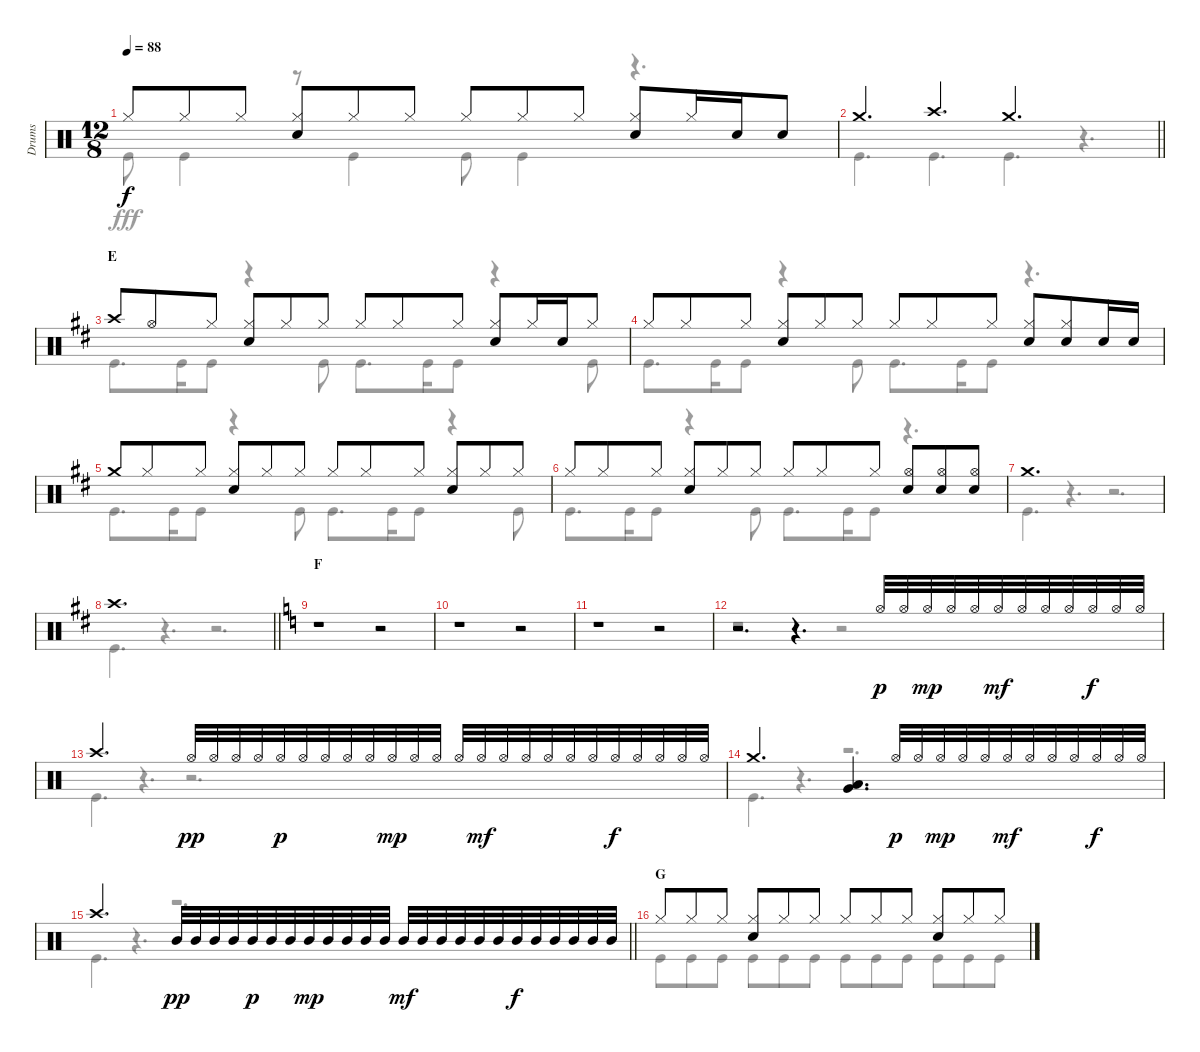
\track ("Drums" "Drums") {instrument percussion}
\staff {score}
\articulation defaults
\voice
\ts (12 8)
\tempo 88
\clef neutral
\ks c "Hi-Hat (closed)".8{dy f} "Hi-Hat (closed)".8 "Hi-Hat (closed)".8
("Hi-Hat (closed)" "Snare (hit) 2").8 "Hi-Hat (closed)".8 "Hi-Hat (closed)".8 "Hi-Hat (closed)".8 "Hi-Hat (closed)".8 "Hi-Hat (closed)".8 ("Hi-Hat (closed)" "Snare (hit) 2").8 "Hi-Hat (closed)".16 "Snare (hit) 2".16 "Snare (hit) 2".8 |
\barLineRight lightlight "Crash medium (hit)".4{d} "Crash high (hit)".4{d} "Crash medium (hit)".2{d}
|
\section ("" "E")
\ks d "Crash high (hit)".8 "Hi-Hat (open)".8 "Hi-Hat (closed)".8
("Hi-Hat (closed)" "Snare (hit) 2").8 "Hi-Hat (closed)".8 "Hi-Hat (closed)".8 "Hi-Hat (closed)".8 "Hi-Hat (closed)".8 "Hi-Hat (closed)".8 ("Hi-Hat (closed)" "Snare (hit) 2").8 "Hi-Hat (closed)".16 "Snare (hit) 2".16 "Hi-Hat (closed)".8 |
"Hi-Hat (closed)".8 "Hi-Hat (closed)".8 "Hi-Hat (closed)".8 ("Hi-Hat (closed)" "Snare (hit) 2").8 "Hi-Hat (closed)".8 "Hi-Hat (closed)".8 "Hi-Hat (closed)".8 "Hi-Hat (closed)".8 "Hi-Hat (closed)".8 ("Hi-Hat (closed)" "Snare (hit) 2").8 ("Hi-Hat (closed)" "Snare (hit) 2").8 "Snare (hit) 2".16 "Snare (hit) 2".16 |
"Crash medium (hit)".8 "Hi-Hat (closed)".8 "Hi-Hat (closed)".8 ("Hi-Hat (closed)" "Snare (hit) 2").8 "Hi-Hat (closed)".8 "Hi-Hat (closed)".8 "Hi-Hat (closed)".8 "Hi-Hat (closed)".8 "Hi-Hat (closed)".8 ("Hi-Hat (closed)" "Snare (hit) 2").8 "Hi-Hat (closed)".8 "Hi-Hat (closed)".8 |
"Hi-Hat (closed)".8 "Hi-Hat (closed)".8 "Hi-Hat (closed)".8 ("Hi-Hat (closed)" "Snare (hit) 2").8 "Hi-Hat (closed)".8 "Hi-Hat (closed)".8 "Hi-Hat (closed)".8 "Hi-Hat (closed)".8 "Hi-Hat (closed)".8 ("Hi-Hat (open)" "Snare (hit) 2").8 ("Hi-Hat (open)" "Snare (hit) 2").8 ("Hi-Hat (open)" "Snare (hit) 2").8 |
"Crash medium (hit)".1{d} |
\barLineRight lightlight "Crash high (hit)".1{d}
|
\section ("" "F")
\ks c
r.1 r.2 |
r.1 r.2 |
r.1 r.2 |
r.2{d} r.4{d} "Hi-Hat (open)".32{dy p} "Hi-Hat (open)".32 "Hi-Hat (open)".32{dy mp} "Hi-Hat (open)".32 "Hi-Hat (open)".32 "Hi-Hat (open)".32{dy mf} "Hi-Hat (open)".32 "Hi-Hat (open)".32 "Hi-Hat (open)".32 "Hi-Hat (open)".32{dy f} "Hi-Hat (open)".32 "Hi-Hat (open)".32 |
"Crash high (hit)".2{d} "Hi-Hat (open)".32{dy pp} "Hi-Hat (open)".32 "Hi-Hat (open)".32 "Hi-Hat (open)".32 "Hi-Hat (open)".32{dy p} "Hi-Hat (open)".32 "Hi-Hat (open)".32 "Hi-Hat (open)".32 "Hi-Hat (open)".32 "Hi-Hat (open)".32{dy mp} "Hi-Hat (open)".32 "Hi-Hat (open)".32 "Hi-Hat (open)".32 "Hi-Hat (open)".32{dy mf} "Hi-Hat (open)".32 "Hi-Hat (open)".32 "Hi-Hat (open)".32 "Hi-Hat (open)".32 "Hi-Hat (open)".32 "Hi-Hat (open)".32{dy f} "Hi-Hat (open)".32 "Hi-Hat (open)".32 "Hi-Hat (open)".32 "Hi-Hat (open)".32 |
"Crash medium (hit)".2{d} ("Low Tom (hit)" "Very Low Tom (hit)").4{d} "Hi-Hat (open)".32{dy p} "Hi-Hat (open)".32 "Hi-Hat (open)".32{dy mp} "Hi-Hat (open)".32 "Hi-Hat (open)".32 "Hi-Hat (open)".32{dy mf} "Hi-Hat (open)".32 "Hi-Hat (open)".32 "Hi-Hat (open)".32 "Hi-Hat (open)".32{dy f} "Hi-Hat (open)".32 "Hi-Hat (open)".32 |
\barLineRight lightlight "Crash high (hit)".2{d} "Mid Tom (hit)".32{dy pp} "Mid Tom (hit)".32 "Mid Tom (hit)".32 "Mid Tom (hit)".32 "Mid Tom (hit)".32{dy p} "Mid Tom (hit)".32 "Mid Tom (hit)".32 "Mid Tom (hit)".32{dy mp} "Mid Tom (hit)".32 "Mid Tom (hit)".32 "Mid Tom (hit)".32 "Mid Tom (hit)".32 "Mid Tom (hit)".32{dy mf} "Mid Tom (hit)".32 "Mid Tom (hit)".32 "Mid Tom (hit)".32 "Mid Tom (hit)".32 "Mid Tom (hit)".32 "Mid Tom (hit)".32{dy f} "Mid Tom (hit)".32 "Mid Tom (hit)".32 "Mid Tom (hit)".32 "Mid Tom (hit)".32 "Mid Tom (hit)".32
|
\section ("" "G")
"Hi-Hat (closed)".8 "Hi-Hat (closed)".8 "Hi-Hat (closed)".8 ("Hi-Hat (closed)" "Snare (hit) 2").8 "Hi-Hat (closed)".8 "Hi-Hat (closed)".8 "Hi-Hat (closed)".8 "Hi-Hat (closed)".8 "Hi-Hat (closed)".8 ("Hi-Hat (closed)" "Snare (hit) 2").8 "Hi-Hat (closed)".8 "Hi-Hat (closed)".8
\voice
\clef neutral
\ottava regular
\simile none
\ks c "Kick (hit)".8{dy fff} "Kick (hit)".4
r.8 "Kick (hit)".4 "Kick (hit)".8 "Kick (hit)".4 r.4{d} |
\barLineRight lightlight "Kick (hit)".4{d} "Kick (hit)".4{d} "Kick (hit)".4{d}
r.4{d} |
\ks d "Kick (hit)".8{d} "Kick (hit)".16 "Kick (hit)".8
r.4 "Kick (hit)".8 "Kick (hit)".8{d} "Kick (hit)".16 "Kick (hit)".8 r.4 "Kick (hit)".8 |
"Kick (hit)".8{d} "Kick (hit)".16 "Kick (hit)".8 r.4 "Kick (hit)".8 "Kick (hit)".8{d} "Kick (hit)".16 "Kick (hit)".8 r.4{d} |
"Kick (hit)".8{d} "Kick (hit)".16 "Kick (hit)".8 r.4 "Kick (hit)".8 "Kick (hit)".8{d} "Kick (hit)".16 "Kick (hit)".8 r.4 "Kick (hit)".8 |
"Kick (hit)".8{d} "Kick (hit)".16 "Kick (hit)".8 r.4 "Kick (hit)".8 "Kick (hit)".8{d} "Kick (hit)".16 "Kick (hit)".8 r.4{d} |
"Kick (hit)".4{d} r.4{d} r.2{d} |
\barLineRight lightlight "Kick (hit)".4{d}
r.4{d} r.2{d} |
\ks c
r.1 r.2 |
r.1 r.2 |
r.1 r.2 |
r.1 r.2 |
"Kick (hit)".4{d} r.4{d} r.2{d} |
"Kick (hit)".4{d} r.4{d} r.2{d} |
\barLineRight lightlight "Kick (hit)".4{d}
r.4{d} r.2{d} |
"Kick (hit)".8 "Kick (hit)".8 "Kick (hit)".8 "Kick (hit)".8 "Kick (hit)".8 "Kick (hit)".8 "Kick (hit)".8 "Kick (hit)".8 "Kick (hit)".8 "Kick (hit)".8 "Kick (hit)".8 "Kick (hit)".8
